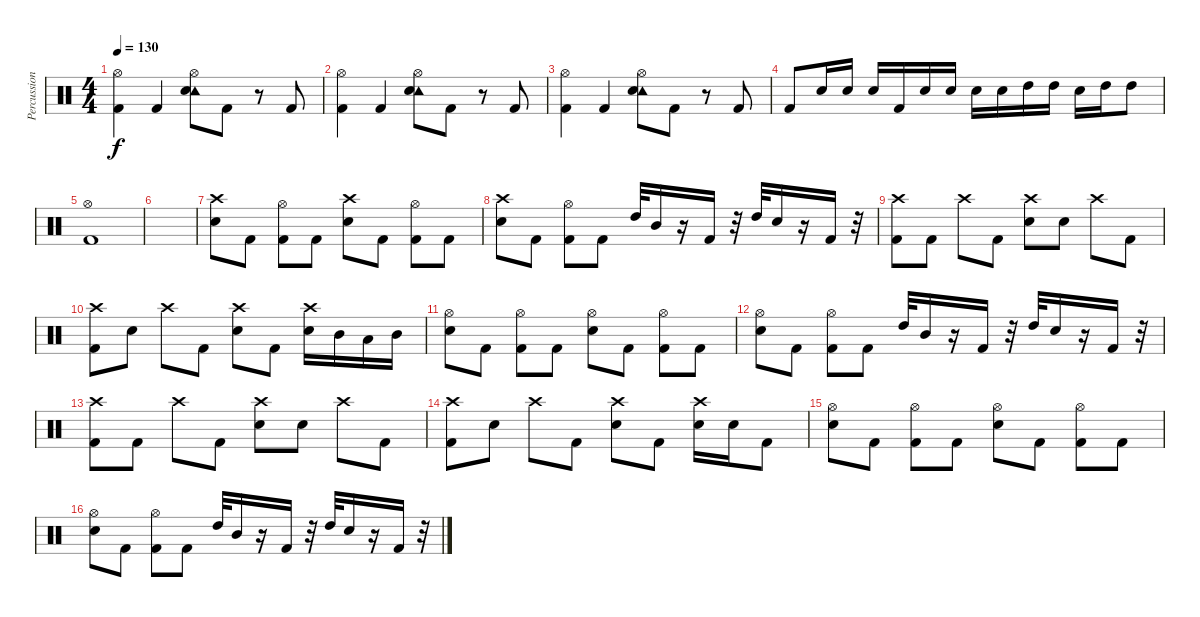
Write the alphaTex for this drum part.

\track ("Percussion" "Percussion") {instrument percussion}
\staff {score}
\articulation defaults
\ts (4 4)
\tempo 130
\clef neutral
\ks c
("Hi-Hat (open)" "Kick (hit) 2").4{dy f} "Kick (hit) 2".4 ("Hi-Hat (open)" "Tambourine (hit)" "Snare (hit) 2").8 "Kick (hit) 2".8 r.8 "Kick (hit) 2".8 |
("Hi-Hat (open)" "Kick (hit) 2").4 "Kick (hit) 2".4 ("Hi-Hat (open)" "Tambourine (hit)" "Snare (hit) 2").8 "Kick (hit) 2".8 r.8 "Kick (hit) 2".8 |
("Hi-Hat (open)" "Kick (hit) 2").4 "Kick (hit) 2".4 ("Hi-Hat (open)" "Tambourine (hit)" "Snare (hit) 2").8 "Kick (hit) 2".8 r.8 "Kick (hit) 2".8 |
"Kick (hit) 2".8 "Snare (hit) 2".16 "Snare (hit) 2".16 "Snare (hit) 2".16 "Kick (hit) 2".16 "Snare (hit) 2".16 "Snare (hit) 2".16 "Snare (hit) 2".16 "Snare (hit) 2".16 "High Tom (hit)".16 "High Tom (hit)".16 "Snare (hit) 2".16 "High Tom (hit)".16 "High Tom (hit)".8 |
("Hi-Hat (open)" "Kick (hit) 2").1 |
|
("Crash high (hit)" "Snare (hit) 2").8 "Kick (hit) 2".8 ("Hi-Hat (open)" "Kick (hit) 2").8 "Kick (hit) 2".8 ("Crash high (hit)" "Snare (hit) 2").8 "Kick (hit) 2".8 ("Hi-Hat (open)" "Kick (hit) 2").8 "Kick (hit) 2".8 |
("Crash high (hit)" "Snare (hit) 2").8 "Kick (hit) 2".8 ("Hi-Hat (open)" "Kick (hit) 2").8 "Kick (hit) 2".8 "High Tom (hit)".32 "Mid Tom (hit)".16 r.16 "Kick (hit) 2".16 r.32 "High Tom (hit)".32 "Snare (hit) 2".16 r.16 "Kick (hit) 2".16 r.32 |
("Crash high (hit)" "Kick (hit) 2").8 "Kick (hit) 2".8 "Crash high (hit)".8 "Kick (hit) 2".8 ("Crash high (hit)" "Snare (hit) 2").8 "Snare (hit) 2".8 "Crash high (hit)".8 "Kick (hit) 2".8 |
("Crash high (hit)" "Kick (hit) 2").8 "Snare (hit) 2".8 "Crash high (hit)".8 "Kick (hit) 2".8 ("Crash high (hit)" "Snare (hit) 2").8 "Kick (hit) 2".8 ("Crash high (hit)" "Snare (hit) 2").16 "Mid Tom (hit)".16 "Low Tom (hit)".16 "Mid Tom (hit)".16 |
("Hi-Hat (open)" "Snare (hit) 2").8 "Kick (hit) 2".8 ("Hi-Hat (open)" "Kick (hit) 2").8 "Kick (hit) 2".8 ("Hi-Hat (open)" "Snare (hit) 2").8 "Kick (hit) 2".8 ("Hi-Hat (open)" "Kick (hit) 2").8 "Kick (hit) 2".8 |
("Hi-Hat (open)" "Snare (hit) 2").8 "Kick (hit) 2".8 ("Hi-Hat (open)" "Kick (hit) 2").8 "Kick (hit) 2".8 "High Tom (hit)".32 "Mid Tom (hit)".16 r.16 "Kick (hit) 2".16 r.32 "High Tom (hit)".32 "Snare (hit) 2".16 r.16 "Kick (hit) 2".16 r.32 |
("Crash high (hit)" "Kick (hit) 2").8 "Kick (hit) 2".8 "Crash high (hit)".8 "Kick (hit) 2".8 ("Crash high (hit)" "Snare (hit) 2").8 "Snare (hit) 2".8 "Crash high (hit)".8 "Kick (hit) 2".8 |
("Crash high (hit)" "Kick (hit) 2").8 "Snare (hit) 2".8 "Crash high (hit)".8 "Kick (hit) 2".8 ("Crash high (hit)" "Snare (hit) 2").8 "Kick (hit) 2".8 ("Crash high (hit)" "Snare (hit) 2").16 "Snare (hit) 2".16 "Kick (hit) 2".8 |
("Hi-Hat (open)" "Snare (hit) 2").8 "Kick (hit) 2".8 ("Hi-Hat (open)" "Kick (hit) 2").8 "Kick (hit) 2".8 ("Hi-Hat (open)" "Snare (hit) 2").8 "Kick (hit) 2".8 ("Hi-Hat (open)" "Kick (hit) 2").8 "Kick (hit) 2".8 |
("Hi-Hat (open)" "Snare (hit) 2").8 "Kick (hit) 2".8 ("Hi-Hat (open)" "Kick (hit) 2").8 "Kick (hit) 2".8 "High Tom (hit)".32 "Mid Tom (hit)".16 r.16 "Kick (hit) 2".16 r.32 "High Tom (hit)".32 "Snare (hit) 2".16 r.16 "Kick (hit) 2".16 r.32
